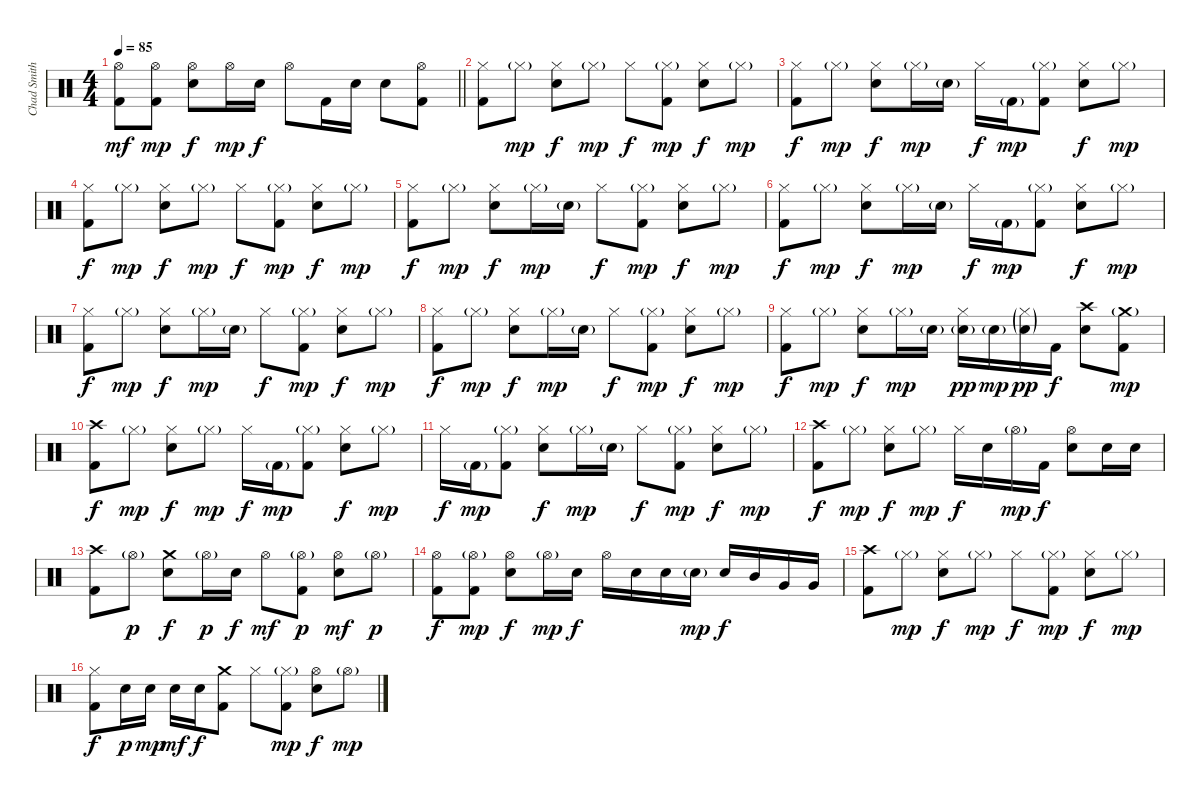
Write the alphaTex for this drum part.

\track ("Chad Smith" "Chad Smith") {instrument percussion}
\staff {score}
\articulation defaults
\ts (4 4)
\tempo 85
\clef neutral
\barLineRight lightlight
\ks c
("Hi-Hat (open)" "Kick (hit) 2").8{dy mf} ("Hi-Hat (open)" "Kick (hit) 2").8{dy mp} ("Hi-Hat (open)" "Electric Snare (hit)").8{dy f} "Hi-Hat (open)".16{dy mp} "Electric Snare (hit)".16{dy f} "Hi-Hat (open)".8 "Kick (hit) 2".16 "Electric Snare (hit)".16 "Electric Snare (hit)".8 ("Hi-Hat (open)" "Kick (hit) 2").8 |
("Hi-Hat (closed)" "Kick (hit) 2").8 "Hi-Hat (closed)"{g}.8{dy mp} ("Hi-Hat (closed)" "Electric Snare (hit)").8{dy f} "Hi-Hat (closed)"{g}.8{dy mp} "Hi-Hat (closed)".8{dy f} ("Hi-Hat (closed)"{g} "Kick (hit) 2").8{dy mp} ("Hi-Hat (closed)" "Electric Snare (hit)").8{dy f} "Hi-Hat (closed)"{g}.8{dy mp} |
("Hi-Hat (closed)" "Kick (hit) 2").8{dy f} "Hi-Hat (closed)"{g}.8{dy mp} ("Hi-Hat (closed)" "Electric Snare (hit)").8{dy f} "Hi-Hat (closed)"{g}.16{dy mp} "Electric Snare (hit)"{g}.16 "Hi-Hat (closed)".16{dy f} "Kick (hit) 2"{g}.16{dy mp} ("Hi-Hat (closed)"{g} "Kick (hit) 2").8 ("Hi-Hat (closed)" "Electric Snare (hit)").8{dy f} "Hi-Hat (closed)"{g}.8{dy mp} |
("Hi-Hat (closed)" "Kick (hit) 2").8{dy f} "Hi-Hat (closed)"{g}.8{dy mp} ("Hi-Hat (closed)" "Electric Snare (hit)").8{dy f} "Hi-Hat (closed)"{g}.8{dy mp} "Hi-Hat (closed)".8{dy f} ("Hi-Hat (closed)"{g} "Kick (hit) 2").8{dy mp} ("Hi-Hat (closed)" "Electric Snare (hit)").8{dy f} "Hi-Hat (closed)"{g}.8{dy mp} |
("Hi-Hat (closed)" "Kick (hit) 2").8{dy f} "Hi-Hat (closed)"{g}.8{dy mp} ("Hi-Hat (closed)" "Electric Snare (hit)").8{dy f} "Hi-Hat (closed)"{g}.16{dy mp} "Electric Snare (hit)"{g}.16 "Hi-Hat (closed)".8{dy f} ("Hi-Hat (closed)"{g} "Kick (hit) 2").8{dy mp} ("Hi-Hat (closed)" "Electric Snare (hit)").8{dy f} "Hi-Hat (closed)"{g}.8{dy mp} |
("Hi-Hat (closed)" "Kick (hit) 2").8{dy f} "Hi-Hat (closed)"{g}.8{dy mp} ("Hi-Hat (closed)" "Electric Snare (hit)").8{dy f} "Hi-Hat (closed)"{g}.16{dy mp} "Electric Snare (hit)"{g}.16 "Hi-Hat (closed)".16{dy f} "Kick (hit) 2"{g}.16{dy mp} ("Hi-Hat (closed)"{g} "Kick (hit) 2").8 ("Hi-Hat (closed)" "Electric Snare (hit)").8{dy f} "Hi-Hat (closed)"{g}.8{dy mp} |
("Hi-Hat (closed)" "Kick (hit) 2").8{dy f} "Hi-Hat (closed)"{g}.8{dy mp} ("Hi-Hat (closed)" "Electric Snare (hit)").8{dy f} "Hi-Hat (closed)"{g}.16{dy mp} "Electric Snare (hit)"{g}.16 "Hi-Hat (closed)".8{dy f} ("Hi-Hat (closed)"{g} "Kick (hit) 2").8{dy mp} ("Hi-Hat (closed)" "Electric Snare (hit)").8{dy f} "Hi-Hat (closed)"{g}.8{dy mp} |
("Hi-Hat (closed)" "Kick (hit) 2").8{dy f} "Hi-Hat (closed)"{g}.8{dy mp} ("Hi-Hat (closed)" "Electric Snare (hit)").8{dy f} "Hi-Hat (closed)"{g}.16{dy mp} "Electric Snare (hit)"{g}.16 "Hi-Hat (closed)".8{dy f} ("Hi-Hat (closed)"{g} "Kick (hit) 2").8{dy mp} ("Hi-Hat (closed)" "Electric Snare (hit)").8{dy f} "Hi-Hat (closed)"{g}.8{dy mp} |
("Hi-Hat (closed)" "Kick (hit) 2").8{dy f} "Hi-Hat (closed)"{g}.8{dy mp} ("Hi-Hat (closed)" "Electric Snare (hit)").8{dy f} "Hi-Hat (closed)"{g}.16{dy mp} "Electric Snare (hit)"{g}.16 ("Hi-Hat (closed)" "Electric Snare (hit)"{g}).16{dy pp} "Electric Snare (hit)"{g}.16{dy mp} ("Hi-Hat (closed)"{g} "Electric Snare (hit)"{g}).16{dy pp} "Kick (hit) 2".16{dy f} ("Crash high (hit)" "Electric Snare (hit)").8 ("Crash medium (hit)"{g} "Kick (hit) 2").8{dy mp} |
("Crash high (hit)" "Kick (hit) 2").8{dy f} "Hi-Hat (closed)"{g}.8{dy mp} ("Hi-Hat (closed)" "Electric Snare (hit)").8{dy f} "Hi-Hat (closed)"{g}.8{dy mp} "Hi-Hat (closed)".16{dy f} "Kick (hit) 2"{g}.16{dy mp} ("Hi-Hat (closed)"{g} "Kick (hit) 2").8 ("Hi-Hat (closed)" "Electric Snare (hit)").8{dy f} "Hi-Hat (closed)"{g}.8{dy mp} |
"Hi-Hat (closed)".16{dy f} "Kick (hit) 2"{g}.16{dy mp} ("Hi-Hat (closed)"{g} "Kick (hit) 2").8 ("Hi-Hat (closed)" "Electric Snare (hit)").8{dy f} "Hi-Hat (closed)"{g}.16{dy mp} "Electric Snare (hit)"{g}.16 "Hi-Hat (closed)".8{dy f} ("Hi-Hat (closed)"{g} "Kick (hit) 2").8{dy mp} ("Hi-Hat (closed)" "Electric Snare (hit)").8{dy f} "Hi-Hat (closed)"{g}.8{dy mp} |
("Crash high (hit)" "Kick (hit) 2").8{dy f} "Hi-Hat (closed)"{g}.8{dy mp} ("Hi-Hat (closed)" "Electric Snare (hit)").8{dy f} "Hi-Hat (closed)"{g}.8{dy mp} "Hi-Hat (closed)".16{dy f} "Electric Snare (hit)".16 "Hi-Hat (open)"{g}.16{dy mp} "Kick (hit) 2".16{dy f} ("Hi-Hat (open)" "Electric Snare (hit)").8 "Electric Snare (hit)".16 "Electric Snare (hit)".16 |
("Crash high (hit)" "Kick (hit) 2").8 "Hi-Hat (open)"{g}.8{dy p} ("Crash medium (hit)" "Electric Snare (hit)").8{dy f} "Hi-Hat (open)"{g}.16{dy p} "Electric Snare (hit)".16{dy f} "Hi-Hat (open)".8{dy mf} ("Hi-Hat (open)"{g} "Kick (hit) 2").8{dy p} ("Hi-Hat (open)" "Electric Snare (hit)").8{dy mf} "Hi-Hat (open)"{g}.8{dy p} |
("Hi-Hat (open)" "Kick (hit) 2").8{dy f} ("Hi-Hat (open)"{g} "Kick (hit) 2").8{dy mp} ("Hi-Hat (open)" "Electric Snare (hit)").8{dy f} "Hi-Hat (open)"{g}.16{dy mp} "Electric Snare (hit)".16{dy f} "Hi-Hat (open)".16 "Electric Snare (hit)".16 "Electric Snare (hit)".16 "Electric Snare (hit)"{g}.16{dy mp} "Electric Snare (hit)".16{dy f} "Mid Tom (hit)".16 "Very Low Tom (hit)".16 "Very Low Tom (hit)".16 |
("Crash high (hit)" "Kick (hit) 2").8 "Hi-Hat (closed)"{g}.8{dy mp} ("Hi-Hat (closed)" "Electric Snare (hit)").8{dy f} "Hi-Hat (closed)"{g}.8{dy mp} "Hi-Hat (closed)".8{dy f} ("Hi-Hat (closed)"{g} "Kick (hit) 2").8{dy mp} ("Hi-Hat (closed)" "Electric Snare (hit)").8{dy f} "Hi-Hat (closed)"{g}.8{dy mp} |
("Hi-Hat (closed)" "Kick (hit) 2").8{dy f} "Electric Snare (hit)".16{dy p} "Electric Snare (hit)".16{dy mp} "Electric Snare (hit)".16{dy mf} "Electric Snare (hit)".16{dy f} ("Crash medium (hit)" "Kick (hit) 2").8 "Hi-Hat (closed)".8 ("Hi-Hat (closed)"{g} "Kick (hit) 2").8{dy mp} ("Hi-Hat (open)" "Electric Snare (hit)").8{dy f} "Hi-Hat (open)"{g}.8{dy mp}
